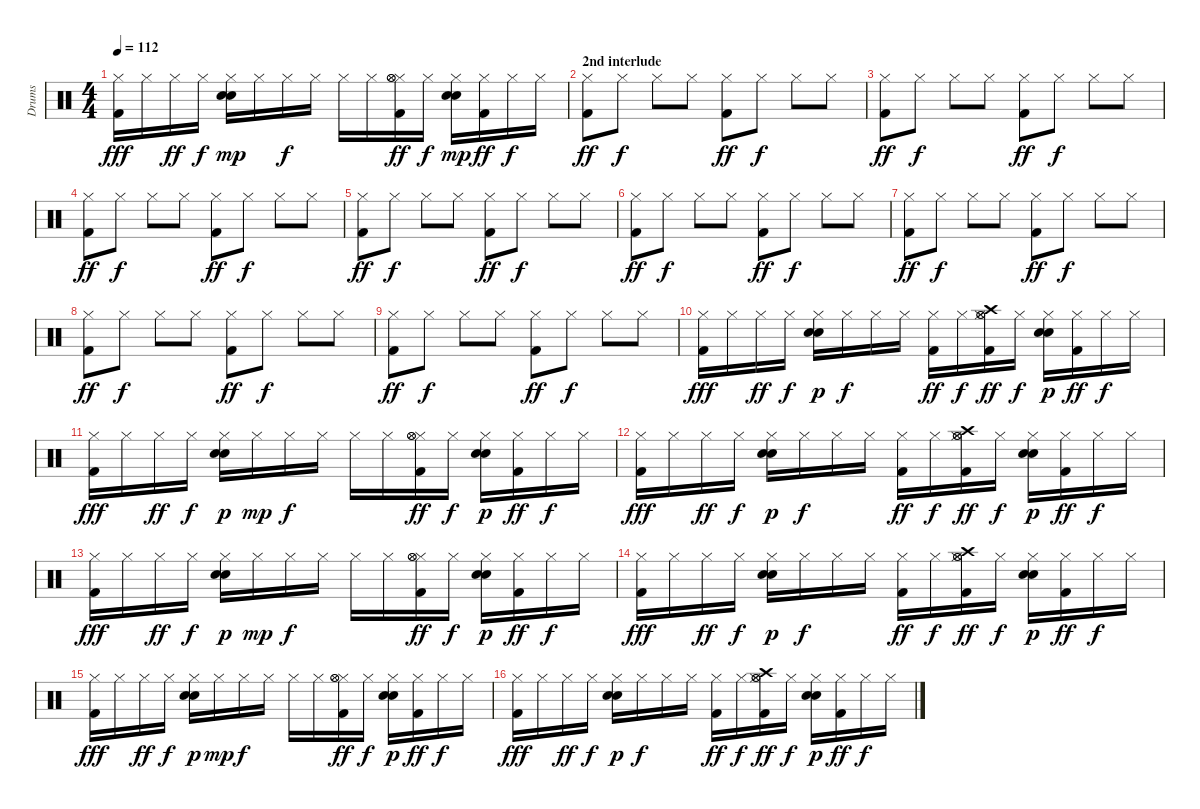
\track ("Drums" "Drums") {instrument percussion}
\staff {score}
\articulation defaults
\ts (4 4)
\tempo 112
\clef neutral
\ks c
("Kick (hit) 2" "Hi-Hat (closed)").16{dy fff} "Hi-Hat (closed)".16 "Hi-Hat (closed)".16{dy ff} "Hi-Hat (closed)".16{dy f} ("Snare (hit) 2" "Hi-Hat (closed)" "Hand Clap (hit)").16{dy mp} "Hi-Hat (closed)".16 "Hi-Hat (closed)".16{dy f} "Hi-Hat (closed)".16 "Hi-Hat (closed)".16 "Hi-Hat (closed)".16 ("Kick (hit) 2" "Hi-Hat (closed)" "Hi-Hat (open)" "Hi-Hat (open)").16{dy ff} "Hi-Hat (closed)".16{dy f} ("Snare (hit) 2" "Hi-Hat (closed)" "Hand Clap (hit)").16{dy mp} ("Kick (hit) 2" "Hi-Hat (closed)").16{dy ff} "Hi-Hat (closed)".16{dy f} "Hi-Hat (closed)".16 |
\section ("" "2nd interlude")
("Kick (hit) 2" "Hi-Hat (closed)").8{dy ff} "Hi-Hat (closed)".8{dy f} "Hi-Hat (closed)".8 "Hi-Hat (closed)".8 ("Kick (hit) 2" "Hi-Hat (closed)").8{dy ff} "Hi-Hat (closed)".8{dy f} "Hi-Hat (closed)".8 "Hi-Hat (closed)".8 |
("Kick (hit) 2" "Hi-Hat (closed)").8{dy ff} "Hi-Hat (closed)".8{dy f} "Hi-Hat (closed)".8 "Hi-Hat (closed)".8 ("Kick (hit) 2" "Hi-Hat (closed)").8{dy ff} "Hi-Hat (closed)".8{dy f} "Hi-Hat (closed)".8 "Hi-Hat (closed)".8 |
("Kick (hit) 2" "Hi-Hat (closed)").8{dy ff} "Hi-Hat (closed)".8{dy f} "Hi-Hat (closed)".8 "Hi-Hat (closed)".8 ("Kick (hit) 2" "Hi-Hat (closed)").8{dy ff} "Hi-Hat (closed)".8{dy f} "Hi-Hat (closed)".8 "Hi-Hat (closed)".8 |
("Kick (hit) 2" "Hi-Hat (closed)").8{dy ff} "Hi-Hat (closed)".8{dy f} "Hi-Hat (closed)".8 "Hi-Hat (closed)".8 ("Kick (hit) 2" "Hi-Hat (closed)").8{dy ff} "Hi-Hat (closed)".8{dy f} "Hi-Hat (closed)".8 "Hi-Hat (closed)".8 |
("Kick (hit) 2" "Hi-Hat (closed)").8{dy ff} "Hi-Hat (closed)".8{dy f} "Hi-Hat (closed)".8 "Hi-Hat (closed)".8 ("Kick (hit) 2" "Hi-Hat (closed)").8{dy ff} "Hi-Hat (closed)".8{dy f} "Hi-Hat (closed)".8 "Hi-Hat (closed)".8 |
("Kick (hit) 2" "Hi-Hat (closed)").8{dy ff} "Hi-Hat (closed)".8{dy f} "Hi-Hat (closed)".8 "Hi-Hat (closed)".8 ("Kick (hit) 2" "Hi-Hat (closed)").8{dy ff} "Hi-Hat (closed)".8{dy f} "Hi-Hat (closed)".8 "Hi-Hat (closed)".8 |
("Kick (hit) 2" "Hi-Hat (closed)").8{dy ff} "Hi-Hat (closed)".8{dy f} "Hi-Hat (closed)".8 "Hi-Hat (closed)".8 ("Kick (hit) 2" "Hi-Hat (closed)").8{dy ff} "Hi-Hat (closed)".8{dy f} "Hi-Hat (closed)".8 "Hi-Hat (closed)".8 |
("Kick (hit) 2" "Hi-Hat (closed)").8{dy ff} "Hi-Hat (closed)".8{dy f} "Hi-Hat (closed)".8 "Hi-Hat (closed)".8 ("Kick (hit) 2" "Hi-Hat (closed)").8{dy ff} "Hi-Hat (closed)".8{dy f} "Hi-Hat (closed)".8 "Hi-Hat (closed)".8 |
("Kick (hit) 2" "Hi-Hat (closed)").16{dy fff} "Hi-Hat (closed)".16 "Hi-Hat (closed)".16{dy ff} "Hi-Hat (closed)".16{dy f} ("Snare (hit) 2" "Hi-Hat (closed)" "Hand Clap (hit)").16{dy p} "Hi-Hat (closed)".16{dy f} "Hi-Hat (closed)".16 "Hi-Hat (closed)".16 ("Kick (hit) 2" "Hi-Hat (closed)").16{dy ff} "Hi-Hat (closed)".16{dy f} ("Kick (hit) 2" "Crash high (hit)" "Hi-Hat (closed)" "Hi-Hat (open)" "Hi-Hat (open)").16{dy ff} "Hi-Hat (closed)".16{dy f} ("Snare (hit) 2" "Hi-Hat (closed)" "Hand Clap (hit)").16{dy p} ("Kick (hit) 2" "Hi-Hat (closed)").16{dy ff} "Hi-Hat (closed)".16{dy f} "Hi-Hat (closed)".16 |
("Kick (hit) 2" "Hi-Hat (closed)").16{dy fff} "Hi-Hat (closed)".16 "Hi-Hat (closed)".16{dy ff} "Hi-Hat (closed)".16{dy f} ("Snare (hit) 2" "Hi-Hat (closed)" "Hand Clap (hit)").16{dy p} "Hi-Hat (closed)".16{dy mp} "Hi-Hat (closed)".16{dy f} "Hi-Hat (closed)".16 "Hi-Hat (closed)".16 "Hi-Hat (closed)".16 ("Kick (hit) 2" "Hi-Hat (closed)" "Hi-Hat (open)" "Hi-Hat (open)").16{dy ff} "Hi-Hat (closed)".16{dy f} ("Snare (hit) 2" "Hi-Hat (closed)" "Hand Clap (hit)").16{dy p} ("Kick (hit) 2" "Hi-Hat (closed)").16{dy ff} "Hi-Hat (closed)".16{dy f} "Hi-Hat (closed)".16 |
("Kick (hit) 2" "Hi-Hat (closed)").16{dy fff} "Hi-Hat (closed)".16 "Hi-Hat (closed)".16{dy ff} "Hi-Hat (closed)".16{dy f} ("Snare (hit) 2" "Hi-Hat (closed)" "Hand Clap (hit)").16{dy p} "Hi-Hat (closed)".16{dy f} "Hi-Hat (closed)".16 "Hi-Hat (closed)".16 ("Kick (hit) 2" "Hi-Hat (closed)").16{dy ff} "Hi-Hat (closed)".16{dy f} ("Kick (hit) 2" "Crash high (hit)" "Hi-Hat (closed)" "Hi-Hat (open)" "Hi-Hat (open)").16{dy ff} "Hi-Hat (closed)".16{dy f} ("Snare (hit) 2" "Hi-Hat (closed)" "Hand Clap (hit)").16{dy p} ("Kick (hit) 2" "Hi-Hat (closed)").16{dy ff} "Hi-Hat (closed)".16{dy f} "Hi-Hat (closed)".16 |
("Kick (hit) 2" "Hi-Hat (closed)").16{dy fff} "Hi-Hat (closed)".16 "Hi-Hat (closed)".16{dy ff} "Hi-Hat (closed)".16{dy f} ("Snare (hit) 2" "Hi-Hat (closed)" "Hand Clap (hit)").16{dy p} "Hi-Hat (closed)".16{dy mp} "Hi-Hat (closed)".16{dy f} "Hi-Hat (closed)".16 "Hi-Hat (closed)".16 "Hi-Hat (closed)".16 ("Kick (hit) 2" "Hi-Hat (closed)" "Hi-Hat (open)" "Hi-Hat (open)").16{dy ff} "Hi-Hat (closed)".16{dy f} ("Snare (hit) 2" "Hi-Hat (closed)" "Hand Clap (hit)").16{dy p} ("Kick (hit) 2" "Hi-Hat (closed)").16{dy ff} "Hi-Hat (closed)".16{dy f} "Hi-Hat (closed)".16 |
("Kick (hit) 2" "Hi-Hat (closed)").16{dy fff} "Hi-Hat (closed)".16 "Hi-Hat (closed)".16{dy ff} "Hi-Hat (closed)".16{dy f} ("Snare (hit) 2" "Hi-Hat (closed)" "Hand Clap (hit)").16{dy p} "Hi-Hat (closed)".16{dy f} "Hi-Hat (closed)".16 "Hi-Hat (closed)".16 ("Kick (hit) 2" "Hi-Hat (closed)").16{dy ff} "Hi-Hat (closed)".16{dy f} ("Kick (hit) 2" "Crash high (hit)" "Hi-Hat (closed)" "Hi-Hat (open)" "Hi-Hat (open)").16{dy ff} "Hi-Hat (closed)".16{dy f} ("Snare (hit) 2" "Hi-Hat (closed)" "Hand Clap (hit)").16{dy p} ("Kick (hit) 2" "Hi-Hat (closed)").16{dy ff} "Hi-Hat (closed)".16{dy f} "Hi-Hat (closed)".16 |
("Kick (hit) 2" "Hi-Hat (closed)").16{dy fff} "Hi-Hat (closed)".16 "Hi-Hat (closed)".16{dy ff} "Hi-Hat (closed)".16{dy f} ("Snare (hit) 2" "Hi-Hat (closed)" "Hand Clap (hit)").16{dy p} "Hi-Hat (closed)".16{dy mp} "Hi-Hat (closed)".16{dy f} "Hi-Hat (closed)".16 "Hi-Hat (closed)".16 "Hi-Hat (closed)".16 ("Kick (hit) 2" "Hi-Hat (closed)" "Hi-Hat (open)" "Hi-Hat (open)").16{dy ff} "Hi-Hat (closed)".16{dy f} ("Snare (hit) 2" "Hi-Hat (closed)" "Hand Clap (hit)").16{dy p} ("Kick (hit) 2" "Hi-Hat (closed)").16{dy ff} "Hi-Hat (closed)".16{dy f} "Hi-Hat (closed)".16 |
("Kick (hit) 2" "Hi-Hat (closed)").16{dy fff} "Hi-Hat (closed)".16 "Hi-Hat (closed)".16{dy ff} "Hi-Hat (closed)".16{dy f} ("Snare (hit) 2" "Hi-Hat (closed)" "Hand Clap (hit)").16{dy p} "Hi-Hat (closed)".16{dy f} "Hi-Hat (closed)".16 "Hi-Hat (closed)".16 ("Kick (hit) 2" "Hi-Hat (closed)").16{dy ff} "Hi-Hat (closed)".16{dy f} ("Kick (hit) 2" "Crash high (hit)" "Hi-Hat (closed)" "Hi-Hat (open)" "Hi-Hat (open)").16{dy ff} "Hi-Hat (closed)".16{dy f} ("Snare (hit) 2" "Hi-Hat (closed)" "Hand Clap (hit)").16{dy p} ("Kick (hit) 2" "Hi-Hat (closed)").16{dy ff} "Hi-Hat (closed)".16{dy f} "Hi-Hat (closed)".16
